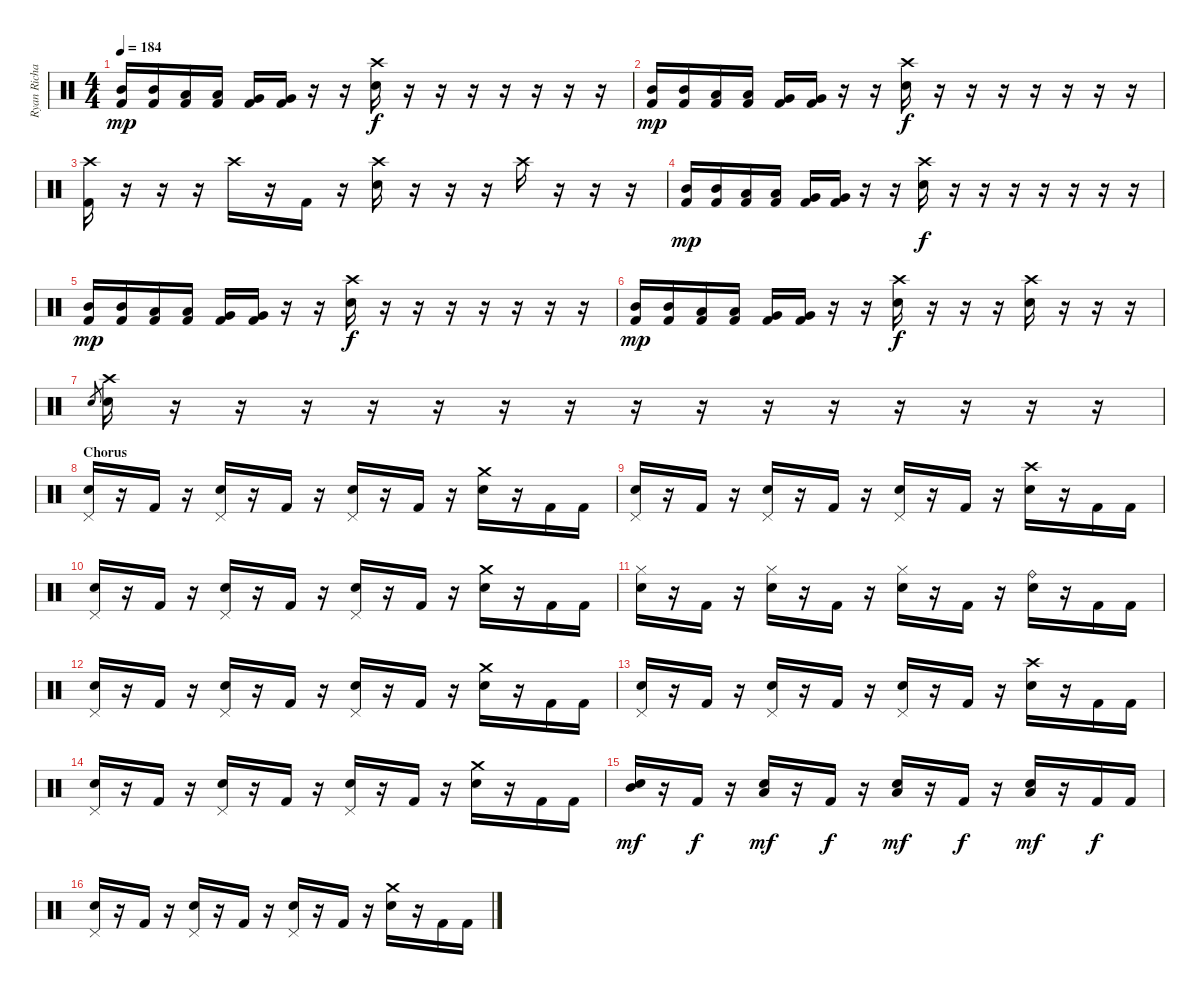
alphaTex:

\track ("Ryan Richards" "Ryan Richa") {instrument percussion}
\staff {score}
\articulation defaults
\ts (4 4)
\tempo 184
\clef neutral
\ks c
("Kick (hit) 2" "Mid Tom (hit)").16{dy mp} ("Kick (hit) 2" "Mid Tom (hit)").16 ("Kick (hit) 2" "Low Tom (hit)").16 ("Kick (hit) 2" "Low Tom (hit)").16 ("Kick (hit) 2" "Very Low Tom (hit)").16 ("Kick (hit) 2" "Very Low Tom (hit)").16 r.16 r.16 ("Snare (hit) 2" "Crash high (hit)").16{dy f} r.16 r.16 r.16 r.16 r.16 r.16 r.16 |
("Kick (hit) 2" "Mid Tom (hit)").16{dy mp} ("Kick (hit) 2" "Mid Tom (hit)").16 ("Kick (hit) 2" "Low Tom (hit)").16 ("Kick (hit) 2" "Low Tom (hit)").16 ("Kick (hit) 2" "Very Low Tom (hit)").16 ("Kick (hit) 2" "Very Low Tom (hit)").16 r.16 r.16 ("Snare (hit) 2" "Crash high (hit)").16{dy f} r.16 r.16 r.16 r.16 r.16 r.16 r.16 |
("Kick (hit) 2" "Crash high (hit)").16 r.16 r.16 r.16 "Crash high (hit)".16 r.16 "Kick (hit) 2".16 r.16 ("Snare (hit) 2" "Crash high (hit)").16 r.16 r.16 r.16 "Crash high (hit)".16 r.16 r.16 r.16 |
("Kick (hit) 2" "Mid Tom (hit)").16{dy mp} ("Kick (hit) 2" "Mid Tom (hit)").16 ("Kick (hit) 2" "Low Tom (hit)").16 ("Kick (hit) 2" "Low Tom (hit)").16 ("Kick (hit) 2" "Very Low Tom (hit)").16 ("Kick (hit) 2" "Very Low Tom (hit)").16 r.16 r.16 ("Snare (hit) 2" "Crash high (hit)").16{dy f} r.16 r.16 r.16 r.16 r.16 r.16 r.16 |
("Kick (hit) 2" "Mid Tom (hit)").16{dy mp} ("Kick (hit) 2" "Mid Tom (hit)").16 ("Kick (hit) 2" "Low Tom (hit)").16 ("Kick (hit) 2" "Low Tom (hit)").16 ("Kick (hit) 2" "Very Low Tom (hit)").16 ("Kick (hit) 2" "Very Low Tom (hit)").16 r.16 r.16 ("Snare (hit) 2" "Crash high (hit)").16{dy f} r.16 r.16 r.16 r.16 r.16 r.16 r.16 |
("Kick (hit) 2" "Mid Tom (hit)").16{dy mp} ("Kick (hit) 2" "Mid Tom (hit)").16 ("Kick (hit) 2" "Low Tom (hit)").16 ("Kick (hit) 2" "Low Tom (hit)").16 ("Kick (hit) 2" "Very Low Tom (hit)").16 ("Kick (hit) 2" "Very Low Tom (hit)").16 r.16 r.16 ("Snare (hit) 2" "Crash high (hit)").16{dy f} r.16 r.16 r.16 ("Snare (hit) 2" "Crash high (hit)").16 r.16 r.16 r.16 |
"Snare (hit) 2".8{gr} ("Snare (hit) 2" "Crash high (hit)").16 r.16 r.16 r.16 r.16 r.16 r.16 r.16 r.16 r.16 r.16 r.16 r.16 r.16 r.16 r.16 |
\section ("" "Chorus")
("Snare (hit) 2" "Pedal Hi-Hat (hit)").16 r.16 "Kick (hit) 2".16 r.16 ("Snare (hit) 2" "Pedal Hi-Hat (hit)").16 r.16 "Kick (hit) 2".16 r.16 ("Snare (hit) 2" "Pedal Hi-Hat (hit)").16 r.16 "Kick (hit) 2".16 r.16 ("Snare (hit) 2" "Crash medium (hit)").16 r.16 "Kick (hit) 2".16 "Kick (hit) 2".16 |
("Snare (hit) 2" "Pedal Hi-Hat (hit)").16 r.16 "Kick (hit) 2".16 r.16 ("Snare (hit) 2" "Pedal Hi-Hat (hit)").16 r.16 "Kick (hit) 2".16 r.16 ("Snare (hit) 2" "Pedal Hi-Hat (hit)").16 r.16 "Kick (hit) 2".16 r.16 ("Snare (hit) 2" "Crash high (hit)").16 r.16 "Kick (hit) 2".16 "Kick (hit) 2".16 |
("Snare (hit) 2" "Pedal Hi-Hat (hit)").16 r.16 "Kick (hit) 2".16 r.16 ("Snare (hit) 2" "Pedal Hi-Hat (hit)").16 r.16 "Kick (hit) 2".16 r.16 ("Snare (hit) 2" "Pedal Hi-Hat (hit)").16 r.16 "Kick (hit) 2".16 r.16 ("Snare (hit) 2" "Crash medium (hit)").16 r.16 "Kick (hit) 2".16 "Kick (hit) 2".16 |
("Snare (hit) 2" "Hi-Hat (closed)").16 r.16 "Kick (hit) 2".16 r.16 ("Snare (hit) 2" "Hi-Hat (closed)").16 r.16 "Kick (hit) 2".16 r.16 ("Snare (hit) 2" "Hi-Hat (closed)").16 r.16 "Kick (hit) 2".16 r.16 ("Snare (hit) 2" "Ride (bell)").16 r.16 "Kick (hit) 2".16 "Kick (hit) 2".16 |
("Snare (hit) 2" "Pedal Hi-Hat (hit)").16 r.16 "Kick (hit) 2".16 r.16 ("Snare (hit) 2" "Pedal Hi-Hat (hit)").16 r.16 "Kick (hit) 2".16 r.16 ("Snare (hit) 2" "Pedal Hi-Hat (hit)").16 r.16 "Kick (hit) 2".16 r.16 ("Snare (hit) 2" "Crash medium (hit)").16 r.16 "Kick (hit) 2".16 "Kick (hit) 2".16 |
("Snare (hit) 2" "Pedal Hi-Hat (hit)").16 r.16 "Kick (hit) 2".16 r.16 ("Snare (hit) 2" "Pedal Hi-Hat (hit)").16 r.16 "Kick (hit) 2".16 r.16 ("Snare (hit) 2" "Pedal Hi-Hat (hit)").16 r.16 "Kick (hit) 2".16 r.16 ("Snare (hit) 2" "Crash high (hit)").16 r.16 "Kick (hit) 2".16 "Kick (hit) 2".16 |
("Snare (hit) 2" "Pedal Hi-Hat (hit)").16 r.16 "Kick (hit) 2".16 r.16 ("Snare (hit) 2" "Pedal Hi-Hat (hit)").16 r.16 "Kick (hit) 2".16 r.16 ("Snare (hit) 2" "Pedal Hi-Hat (hit)").16 r.16 "Kick (hit) 2".16 r.16 ("Snare (hit) 2" "Crash medium (hit)").16 r.16 "Kick (hit) 2".16 "Kick (hit) 2".16 |
("Mid Tom (hit)" "Snare (hit) 2").16{dy mf} r.16 "Kick (hit) 2".16{dy f} r.16 ("Low Tom (hit)" "Snare (hit) 2").16{dy mf} r.16 "Kick (hit) 2".16{dy f} r.16 ("Low Tom (hit)" "Snare (hit) 2").16{dy mf} r.16 "Kick (hit) 2".16{dy f} r.16 ("Low Tom (hit)" "Snare (hit) 2").16{dy mf} r.16 "Kick (hit) 2".16{dy f} "Kick (hit) 2".16 |
("Snare (hit) 2" "Pedal Hi-Hat (hit)").16 r.16 "Kick (hit) 2".16 r.16 ("Snare (hit) 2" "Pedal Hi-Hat (hit)").16 r.16 "Kick (hit) 2".16 r.16 ("Snare (hit) 2" "Pedal Hi-Hat (hit)").16 r.16 "Kick (hit) 2".16 r.16 ("Snare (hit) 2" "Crash medium (hit)").16 r.16 "Kick (hit) 2".16 "Kick (hit) 2".16
